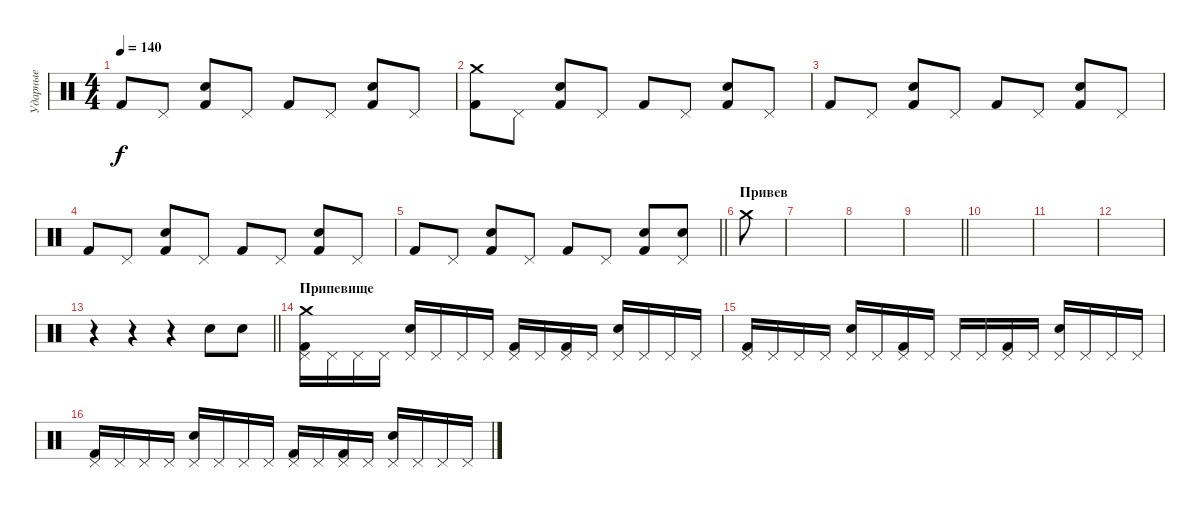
\track ("Ударные" "Ударные") {instrument percussion}
\staff {score}
\articulation defaults
\ts (4 4)
\tempo 140
\clef neutral
\ks c "Kick (hit) 2".8{dy f} "Pedal Hi-Hat (hit)".8
("Electric Snare (hit)" "Kick (hit) 2").8 "Pedal Hi-Hat (hit)".8 "Kick (hit) 2".8 "Pedal Hi-Hat (hit)".8 ("Electric Snare (hit)" "Kick (hit) 2").8 "Pedal Hi-Hat (hit)".8 |
("Kick (hit) 2" "Crash medium (hit)").8 "Pedal Hi-Hat (hit)".8 ("Electric Snare (hit)" "Kick (hit) 2").8 "Pedal Hi-Hat (hit)".8 "Kick (hit) 2".8 "Pedal Hi-Hat (hit)".8 ("Electric Snare (hit)" "Kick (hit) 2").8 "Pedal Hi-Hat (hit)".8 |
"Kick (hit) 2".8 "Pedal Hi-Hat (hit)".8 ("Electric Snare (hit)" "Kick (hit) 2").8 "Pedal Hi-Hat (hit)".8 "Kick (hit) 2".8 "Pedal Hi-Hat (hit)".8 ("Electric Snare (hit)" "Kick (hit) 2").8 "Pedal Hi-Hat (hit)".8 |
"Kick (hit) 2".8 "Pedal Hi-Hat (hit)".8 ("Electric Snare (hit)" "Kick (hit) 2").8 "Pedal Hi-Hat (hit)".8 "Kick (hit) 2".8 "Pedal Hi-Hat (hit)".8 ("Electric Snare (hit)" "Kick (hit) 2").8 "Pedal Hi-Hat (hit)".8 |
\barLineRight lightlight "Kick (hit) 2".8 "Pedal Hi-Hat (hit)".8
("Electric Snare (hit)" "Kick (hit) 2").8 "Pedal Hi-Hat (hit)".8 "Kick (hit) 2".8 "Pedal Hi-Hat (hit)".8 ("Electric Snare (hit)" "Kick (hit) 2").8 ("Pedal Hi-Hat (hit)" "Electric Snare (hit)").8 |
\section ("" "Привев")
"Crash medium (hit)".8 |
|
|
\barLineRight lightlight
|
|
|
|
\barLineRight lightlight
r.4 r.4 r.4 "Electric Snare (hit)".8 "Electric Snare (hit)".8 |
\section ("" "Припевище")
("Pedal Hi-Hat (hit)" "Kick (hit) 2" "Crash medium (hit)").16 "Pedal Hi-Hat (hit)".16 "Pedal Hi-Hat (hit)".16 "Pedal Hi-Hat (hit)".16 ("Pedal Hi-Hat (hit)" "Electric Snare (hit)").16 "Pedal Hi-Hat (hit)".16 "Pedal Hi-Hat (hit)".16 "Pedal Hi-Hat (hit)".16 ("Pedal Hi-Hat (hit)" "Kick (hit) 2").16 "Pedal Hi-Hat (hit)".16 ("Pedal Hi-Hat (hit)" "Kick (hit) 2").16 "Pedal Hi-Hat (hit)".16 ("Pedal Hi-Hat (hit)" "Electric Snare (hit)").16 "Pedal Hi-Hat (hit)".16 "Pedal Hi-Hat (hit)".16 "Pedal Hi-Hat (hit)".16 |
("Pedal Hi-Hat (hit)" "Kick (hit) 2").16 "Pedal Hi-Hat (hit)".16 "Pedal Hi-Hat (hit)".16 "Pedal Hi-Hat (hit)".16 ("Pedal Hi-Hat (hit)" "Electric Snare (hit)").16 "Pedal Hi-Hat (hit)".16 ("Pedal Hi-Hat (hit)" "Kick (hit) 2").16 "Pedal Hi-Hat (hit)".16 "Pedal Hi-Hat (hit)".16 "Pedal Hi-Hat (hit)".16 ("Pedal Hi-Hat (hit)" "Kick (hit) 2").16 "Pedal Hi-Hat (hit)".16 ("Pedal Hi-Hat (hit)" "Electric Snare (hit)").16 "Pedal Hi-Hat (hit)".16 "Pedal Hi-Hat (hit)".16 "Pedal Hi-Hat (hit)".16 |
("Pedal Hi-Hat (hit)" "Kick (hit) 2").16 "Pedal Hi-Hat (hit)".16 "Pedal Hi-Hat (hit)".16 "Pedal Hi-Hat (hit)".16 ("Pedal Hi-Hat (hit)" "Electric Snare (hit)").16 "Pedal Hi-Hat (hit)".16 "Pedal Hi-Hat (hit)".16 "Pedal Hi-Hat (hit)".16 ("Pedal Hi-Hat (hit)" "Kick (hit) 2").16 "Pedal Hi-Hat (hit)".16 ("Pedal Hi-Hat (hit)" "Kick (hit) 2").16 "Pedal Hi-Hat (hit)".16 ("Pedal Hi-Hat (hit)" "Electric Snare (hit)").16 "Pedal Hi-Hat (hit)".16 "Pedal Hi-Hat (hit)".16 "Pedal Hi-Hat (hit)".16
